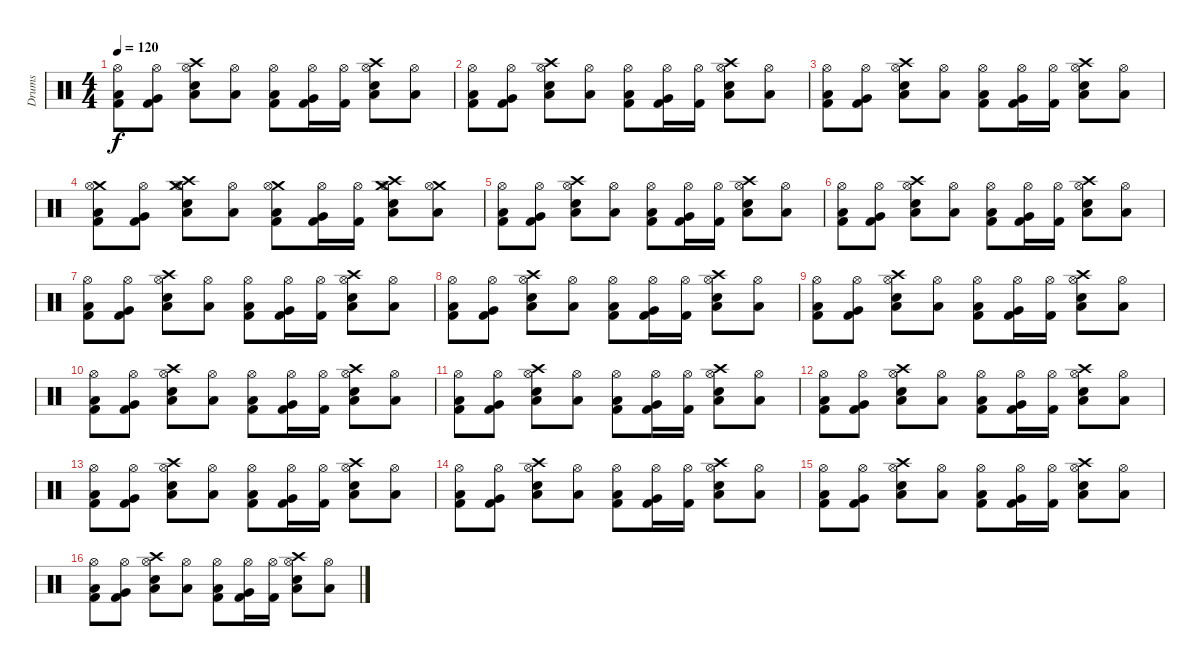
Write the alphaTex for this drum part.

\track ("Drums" "Drums") {instrument percussion}
\staff {score}
\articulation defaults
\ts (4 4)
\tempo 120
\clef neutral
\ks c
("Hi-Hat (open)" "Low Tom (hit)" "Kick (hit) 2").8{dy f} ("Hi-Hat (open)" "Very Low Tom (hit)" "Kick (hit) 2").8 ("Hi-Hat (open)" "Crash high (hit)" "Low Floor Tom (hit)" "Snare (hit) 2").8 ("Hi-Hat (open)" "Low Tom (hit)").8 ("Hi-Hat (open)" "Low Tom (hit)" "Kick (hit) 2").8 ("Hi-Hat (open)" "Very Low Tom (hit)" "Kick (hit) 2").16 ("Hi-Hat (open)" "Kick (hit) 2").16 ("Hi-Hat (open)" "Crash high (hit)" "Low Floor Tom (hit)" "Snare (hit) 2").8 ("Hi-Hat (open)" "Low Tom (hit)").8 |
("Hi-Hat (open)" "Low Tom (hit)" "Kick (hit) 2").8 ("Hi-Hat (open)" "Very Low Tom (hit)" "Kick (hit) 2").8 ("Hi-Hat (open)" "Crash high (hit)" "Low Floor Tom (hit)" "Snare (hit) 2").8 ("Hi-Hat (open)" "Low Tom (hit)").8 ("Hi-Hat (open)" "Low Tom (hit)" "Kick (hit) 2").8 ("Hi-Hat (open)" "Very Low Tom (hit)" "Kick (hit) 2").16 ("Hi-Hat (open)" "Kick (hit) 2").16 ("Hi-Hat (open)" "Crash high (hit)" "Low Floor Tom (hit)" "Snare (hit) 2").8 ("Hi-Hat (open)" "Low Tom (hit)").8 |
("Hi-Hat (open)" "Low Tom (hit)" "Kick (hit) 2").8 ("Hi-Hat (open)" "Very Low Tom (hit)" "Kick (hit) 2").8 ("Hi-Hat (open)" "Crash high (hit)" "Low Floor Tom (hit)" "Snare (hit) 2").8 ("Hi-Hat (open)" "Low Tom (hit)").8 ("Hi-Hat (open)" "Low Tom (hit)" "Kick (hit) 2").8 ("Hi-Hat (open)" "Very Low Tom (hit)" "Kick (hit) 2").16 ("Hi-Hat (open)" "Kick (hit) 2").16 ("Hi-Hat (open)" "Crash high (hit)" "Low Floor Tom (hit)" "Snare (hit) 2").8 ("Hi-Hat (open)" "Low Tom (hit)").8 |
("Crash medium (hit)" "Hi-Hat (open)" "Low Tom (hit)" "Kick (hit) 2").8 ("Hi-Hat (open)" "Very Low Tom (hit)" "Kick (hit) 2").8 ("Crash medium (hit)" "Hi-Hat (open)" "Crash high (hit)" "Low Floor Tom (hit)" "Snare (hit) 2").8 ("Hi-Hat (open)" "Low Tom (hit)").8 ("Crash medium (hit)" "Hi-Hat (open)" "Low Tom (hit)" "Kick (hit) 2").8 ("Hi-Hat (open)" "Very Low Tom (hit)" "Kick (hit) 2").16 ("Hi-Hat (open)" "Kick (hit) 2").16 ("Crash medium (hit)" "Hi-Hat (open)" "Crash high (hit)" "Low Floor Tom (hit)" "Snare (hit) 2").8 ("Crash medium (hit)" "Hi-Hat (open)" "Low Tom (hit)").8 |
("Hi-Hat (open)" "Low Tom (hit)" "Kick (hit) 2").8 ("Hi-Hat (open)" "Very Low Tom (hit)" "Kick (hit) 2").8 ("Hi-Hat (open)" "Crash high (hit)" "Low Floor Tom (hit)" "Snare (hit) 2").8 ("Hi-Hat (open)" "Low Tom (hit)").8 ("Hi-Hat (open)" "Low Tom (hit)" "Kick (hit) 2").8 ("Hi-Hat (open)" "Very Low Tom (hit)" "Kick (hit) 2").16 ("Hi-Hat (open)" "Kick (hit) 2").16 ("Hi-Hat (open)" "Crash high (hit)" "Low Floor Tom (hit)" "Snare (hit) 2").8 ("Hi-Hat (open)" "Low Tom (hit)").8 |
("Hi-Hat (open)" "Low Tom (hit)" "Kick (hit) 2").8 ("Hi-Hat (open)" "Very Low Tom (hit)" "Kick (hit) 2").8 ("Hi-Hat (open)" "Crash high (hit)" "Low Floor Tom (hit)" "Snare (hit) 2").8 ("Hi-Hat (open)" "Low Tom (hit)").8 ("Hi-Hat (open)" "Low Tom (hit)" "Kick (hit) 2").8 ("Hi-Hat (open)" "Very Low Tom (hit)" "Kick (hit) 2").16 ("Hi-Hat (open)" "Kick (hit) 2").16 ("Hi-Hat (open)" "Crash high (hit)" "Low Floor Tom (hit)" "Snare (hit) 2").8 ("Hi-Hat (open)" "Low Tom (hit)").8 |
("Hi-Hat (open)" "Low Tom (hit)" "Kick (hit) 2").8 ("Hi-Hat (open)" "Very Low Tom (hit)" "Kick (hit) 2").8 ("Hi-Hat (open)" "Crash high (hit)" "Low Floor Tom (hit)" "Snare (hit) 2").8 ("Hi-Hat (open)" "Low Tom (hit)").8 ("Hi-Hat (open)" "Low Tom (hit)" "Kick (hit) 2").8 ("Hi-Hat (open)" "Very Low Tom (hit)" "Kick (hit) 2").16 ("Hi-Hat (open)" "Kick (hit) 2").16 ("Hi-Hat (open)" "Crash high (hit)" "Low Floor Tom (hit)" "Snare (hit) 2").8 ("Hi-Hat (open)" "Low Tom (hit)").8 |
("Hi-Hat (open)" "Low Tom (hit)" "Kick (hit) 2").8 ("Hi-Hat (open)" "Very Low Tom (hit)" "Kick (hit) 2").8 ("Hi-Hat (open)" "Crash high (hit)" "Low Floor Tom (hit)" "Snare (hit) 2").8 ("Hi-Hat (open)" "Low Tom (hit)").8 ("Hi-Hat (open)" "Low Tom (hit)" "Kick (hit) 2").8 ("Hi-Hat (open)" "Very Low Tom (hit)" "Kick (hit) 2").16 ("Hi-Hat (open)" "Kick (hit) 2").16 ("Hi-Hat (open)" "Crash high (hit)" "Low Floor Tom (hit)" "Snare (hit) 2").8 ("Hi-Hat (open)" "Low Tom (hit)").8 |
("Hi-Hat (open)" "Low Tom (hit)" "Kick (hit) 2").8 ("Hi-Hat (open)" "Very Low Tom (hit)" "Kick (hit) 2").8 ("Hi-Hat (open)" "Crash high (hit)" "Low Floor Tom (hit)" "Snare (hit) 2").8 ("Hi-Hat (open)" "Low Tom (hit)").8 ("Hi-Hat (open)" "Low Tom (hit)" "Kick (hit) 2").8 ("Hi-Hat (open)" "Very Low Tom (hit)" "Kick (hit) 2").16 ("Hi-Hat (open)" "Kick (hit) 2").16 ("Hi-Hat (open)" "Crash high (hit)" "Low Floor Tom (hit)" "Snare (hit) 2").8 ("Hi-Hat (open)" "Low Tom (hit)").8 |
("Hi-Hat (open)" "Low Tom (hit)" "Kick (hit) 2").8 ("Hi-Hat (open)" "Very Low Tom (hit)" "Kick (hit) 2").8 ("Hi-Hat (open)" "Crash high (hit)" "Low Floor Tom (hit)" "Snare (hit) 2").8 ("Hi-Hat (open)" "Low Tom (hit)").8 ("Hi-Hat (open)" "Low Tom (hit)" "Kick (hit) 2").8 ("Hi-Hat (open)" "Very Low Tom (hit)" "Kick (hit) 2").16 ("Hi-Hat (open)" "Kick (hit) 2").16 ("Hi-Hat (open)" "Crash high (hit)" "Low Floor Tom (hit)" "Snare (hit) 2").8 ("Hi-Hat (open)" "Low Tom (hit)").8 |
("Hi-Hat (open)" "Low Tom (hit)" "Kick (hit) 2").8 ("Hi-Hat (open)" "Very Low Tom (hit)" "Kick (hit) 2").8 ("Hi-Hat (open)" "Crash high (hit)" "Low Floor Tom (hit)" "Snare (hit) 2").8 ("Hi-Hat (open)" "Low Tom (hit)").8 ("Hi-Hat (open)" "Low Tom (hit)" "Kick (hit) 2").8 ("Hi-Hat (open)" "Very Low Tom (hit)" "Kick (hit) 2").16 ("Hi-Hat (open)" "Kick (hit) 2").16 ("Hi-Hat (open)" "Crash high (hit)" "Low Floor Tom (hit)" "Snare (hit) 2").8 ("Hi-Hat (open)" "Low Tom (hit)").8 |
("Hi-Hat (open)" "Low Tom (hit)" "Kick (hit) 2").8 ("Hi-Hat (open)" "Very Low Tom (hit)" "Kick (hit) 2").8 ("Hi-Hat (open)" "Crash high (hit)" "Low Floor Tom (hit)" "Snare (hit) 2").8 ("Hi-Hat (open)" "Low Tom (hit)").8 ("Hi-Hat (open)" "Low Tom (hit)" "Kick (hit) 2").8 ("Hi-Hat (open)" "Very Low Tom (hit)" "Kick (hit) 2").16 ("Hi-Hat (open)" "Kick (hit) 2").16 ("Hi-Hat (open)" "Crash high (hit)" "Low Floor Tom (hit)" "Snare (hit) 2").8 ("Hi-Hat (open)" "Low Tom (hit)").8 |
("Hi-Hat (open)" "Low Tom (hit)" "Kick (hit) 2").8 ("Hi-Hat (open)" "Very Low Tom (hit)" "Kick (hit) 2").8 ("Hi-Hat (open)" "Crash high (hit)" "Low Floor Tom (hit)" "Snare (hit) 2").8 ("Hi-Hat (open)" "Low Tom (hit)").8 ("Hi-Hat (open)" "Low Tom (hit)" "Kick (hit) 2").8 ("Hi-Hat (open)" "Very Low Tom (hit)" "Kick (hit) 2").16 ("Hi-Hat (open)" "Kick (hit) 2").16 ("Hi-Hat (open)" "Crash high (hit)" "Low Floor Tom (hit)" "Snare (hit) 2").8 ("Hi-Hat (open)" "Low Tom (hit)").8 |
("Hi-Hat (open)" "Low Tom (hit)" "Kick (hit) 2").8 ("Hi-Hat (open)" "Very Low Tom (hit)" "Kick (hit) 2").8 ("Hi-Hat (open)" "Crash high (hit)" "Low Floor Tom (hit)" "Snare (hit) 2").8 ("Hi-Hat (open)" "Low Tom (hit)").8 ("Hi-Hat (open)" "Low Tom (hit)" "Kick (hit) 2").8 ("Hi-Hat (open)" "Very Low Tom (hit)" "Kick (hit) 2").16 ("Hi-Hat (open)" "Kick (hit) 2").16 ("Hi-Hat (open)" "Crash high (hit)" "Low Floor Tom (hit)" "Snare (hit) 2").8 ("Hi-Hat (open)" "Low Tom (hit)").8 |
("Hi-Hat (open)" "Low Tom (hit)" "Kick (hit) 2").8 ("Hi-Hat (open)" "Very Low Tom (hit)" "Kick (hit) 2").8 ("Hi-Hat (open)" "Crash high (hit)" "Low Floor Tom (hit)" "Snare (hit) 2").8 ("Hi-Hat (open)" "Low Tom (hit)").8 ("Hi-Hat (open)" "Low Tom (hit)" "Kick (hit) 2").8 ("Hi-Hat (open)" "Very Low Tom (hit)" "Kick (hit) 2").16 ("Hi-Hat (open)" "Kick (hit) 2").16 ("Hi-Hat (open)" "Crash high (hit)" "Low Floor Tom (hit)" "Snare (hit) 2").8 ("Hi-Hat (open)" "Low Tom (hit)").8 |
("Hi-Hat (open)" "Low Tom (hit)" "Kick (hit) 2").8 ("Hi-Hat (open)" "Very Low Tom (hit)" "Kick (hit) 2").8 ("Hi-Hat (open)" "Crash high (hit)" "Low Floor Tom (hit)" "Snare (hit) 2").8 ("Hi-Hat (open)" "Low Tom (hit)").8 ("Hi-Hat (open)" "Low Tom (hit)" "Kick (hit) 2").8 ("Hi-Hat (open)" "Very Low Tom (hit)" "Kick (hit) 2").16 ("Hi-Hat (open)" "Kick (hit) 2").16 ("Hi-Hat (open)" "Crash high (hit)" "Low Floor Tom (hit)" "Snare (hit) 2").8 ("Hi-Hat (open)" "Low Tom (hit)").8
